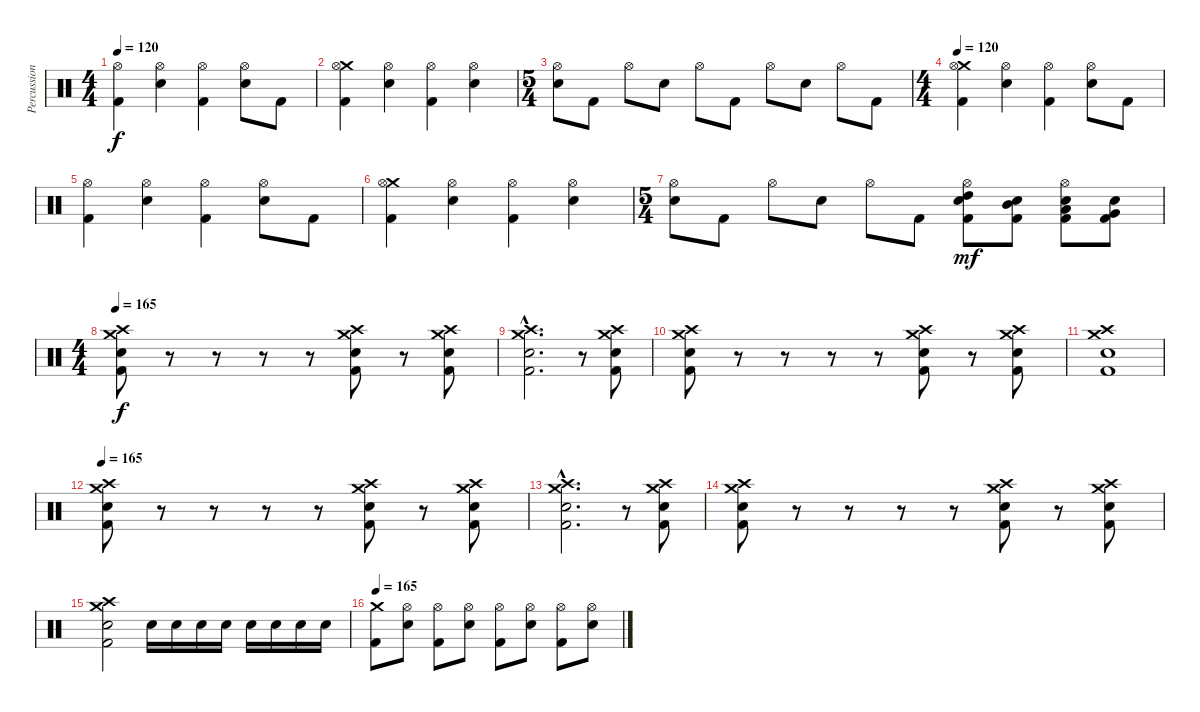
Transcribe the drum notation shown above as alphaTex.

\track ("Percussion" "Percussion") {instrument percussion}
\staff {score}
\articulation defaults
\ts (4 4)
\tempo 120
\clef neutral
\ks c
("Hi-Hat (open)" "Kick (hit) 2").4{dy f} ("Hi-Hat (open)" "Snare (hit) 2").4 ("Hi-Hat (open)" "Kick (hit) 2").4 ("Hi-Hat (open)" "Snare (hit) 2").8 "Kick (hit) 2".8 |
("Crash medium (hit)" "Hi-Hat (open)" "Kick (hit) 2").4 ("Hi-Hat (open)" "Snare (hit) 2").4 ("Hi-Hat (open)" "Kick (hit) 2").4 ("Hi-Hat (open)" "Snare (hit) 2").4 |
\ts (5 4)
("Hi-Hat (open)" "Snare (hit) 2").8 "Kick (hit) 2".8 "Hi-Hat (open)".8 "Snare (hit) 2".8 "Hi-Hat (open)".8 "Kick (hit) 2".8 "Hi-Hat (open)".8 "Snare (hit) 2".8 "Hi-Hat (open)".8 "Kick (hit) 2".8 |
\ts (4 4)
\tempo 120
("Crash medium (hit)" "Hi-Hat (open)" "Kick (hit) 2").4 ("Hi-Hat (open)" "Snare (hit) 2").4 ("Hi-Hat (open)" "Kick (hit) 2").4 ("Hi-Hat (open)" "Snare (hit) 2").8 "Kick (hit) 2".8 |
("Hi-Hat (open)" "Kick (hit) 2").4 ("Hi-Hat (open)" "Snare (hit) 2").4 ("Hi-Hat (open)" "Kick (hit) 2").4 ("Hi-Hat (open)" "Snare (hit) 2").8 "Kick (hit) 2".8 |
("Crash medium (hit)" "Hi-Hat (open)" "Kick (hit) 2").4 ("Hi-Hat (open)" "Snare (hit) 2").4 ("Hi-Hat (open)" "Kick (hit) 2").4 ("Hi-Hat (open)" "Snare (hit) 2").4 |
\ts (5 4)
("Hi-Hat (open)" "Snare (hit) 2").8 "Kick (hit) 2".8 "Hi-Hat (open)".8 "Snare (hit) 2".8 "Hi-Hat (open)".8 "Kick (hit) 2".8 ("Hi-Hat (open)" "High Tom (hit)" "Snare (hit) 2" "Kick (hit) 2").8{dy mf} ("Mid Tom (hit)" "Snare (hit) 2" "Kick (hit) 2").8 ("Hi-Hat (open)" "Low Tom (hit)" "Snare (hit) 2" "Kick (hit) 2").8 ("Very Low Tom (hit)" "Snare (hit) 2" "Kick (hit) 2").8 |
\ts (4 4)
\tempo 165
("Crash medium (hit)" "Crash high (hit)" "Snare (hit) 2" "Kick (hit) 2").8{dy f} r.8 r.8 r.8 r.8 ("Crash medium (hit)" "Crash high (hit)" "Snare (hit) 2" "Kick (hit) 2").8 r.8 ("Crash medium (hit)" "Crash high (hit)" "Snare (hit) 2" "Kick (hit) 2").8 |
("Crash medium (hit)"{hac} "Crash high (hit)"{hac} "Snare (hit) 2"{hac} "Kick (hit) 2"{hac}).2{d} r.8 ("Crash medium (hit)" "Crash high (hit)" "Snare (hit) 2" "Kick (hit) 2").8 |
("Crash medium (hit)" "Crash high (hit)" "Snare (hit) 2" "Kick (hit) 2").8 r.8 r.8 r.8 r.8 ("Crash medium (hit)" "Crash high (hit)" "Snare (hit) 2" "Kick (hit) 2").8 r.8 ("Crash medium (hit)" "Crash high (hit)" "Snare (hit) 2" "Kick (hit) 2").8 |
("Crash medium (hit)" "Crash high (hit)" "Snare (hit) 2" "Kick (hit) 2").1 |
\tempo 165
("Crash medium (hit)" "Crash high (hit)" "Snare (hit) 2" "Kick (hit) 2").8 r.8 r.8 r.8 r.8 ("Crash medium (hit)" "Crash high (hit)" "Snare (hit) 2" "Kick (hit) 2").8 r.8 ("Crash medium (hit)" "Crash high (hit)" "Snare (hit) 2" "Kick (hit) 2").8 |
("Crash medium (hit)"{hac} "Crash high (hit)"{hac} "Snare (hit) 2"{hac} "Kick (hit) 2"{hac}).2{d} r.8 ("Crash medium (hit)" "Crash high (hit)" "Snare (hit) 2" "Kick (hit) 2").8 |
("Crash medium (hit)" "Crash high (hit)" "Snare (hit) 2" "Kick (hit) 2").8 r.8 r.8 r.8 r.8 ("Crash medium (hit)" "Crash high (hit)" "Snare (hit) 2" "Kick (hit) 2").8 r.8 ("Crash medium (hit)" "Crash high (hit)" "Snare (hit) 2" "Kick (hit) 2").8 |
("Crash medium (hit)" "Crash high (hit)" "Snare (hit) 2" "Kick (hit) 2").2 "Snare (hit) 2".16 "Snare (hit) 2".16 "Snare (hit) 2".16 "Snare (hit) 2".16 "Snare (hit) 2".16 "Snare (hit) 2".16 "Snare (hit) 2".16 "Snare (hit) 2".16 |
\tempo 165
("Crash medium (hit)" "Kick (hit) 2").8 ("Hi-Hat (open)" "Snare (hit) 2").8 ("Hi-Hat (open)" "Kick (hit) 2").8 ("Hi-Hat (open)" "Snare (hit) 2").8 ("Hi-Hat (open)" "Kick (hit) 2").8 ("Hi-Hat (open)" "Snare (hit) 2").8 ("Hi-Hat (open)" "Kick (hit) 2").8 ("Hi-Hat (open)" "Snare (hit) 2").8
